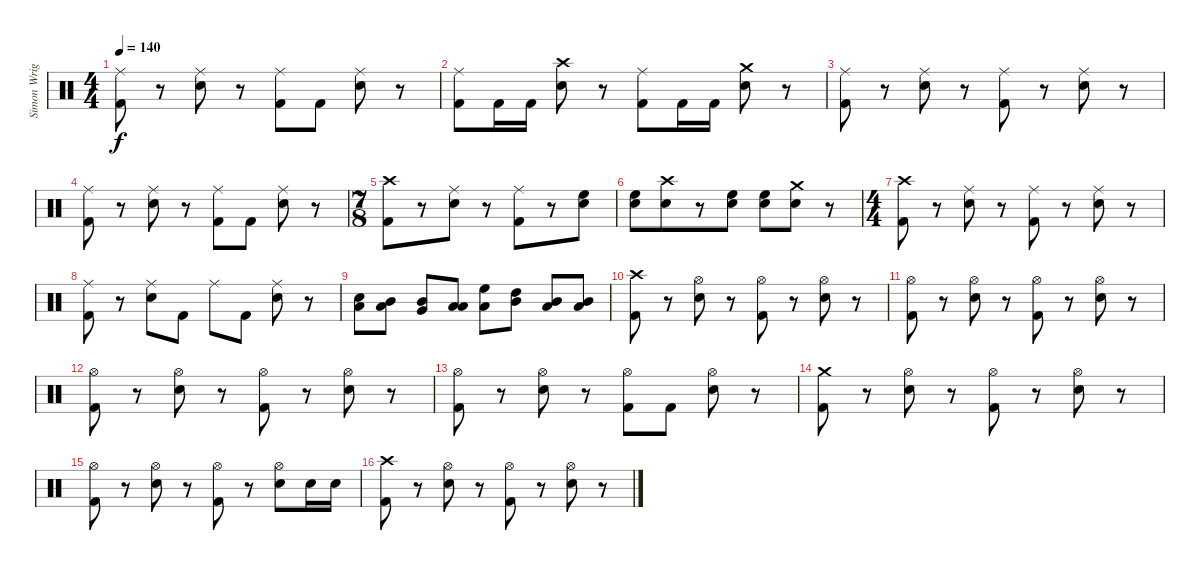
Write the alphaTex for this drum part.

\track ("Simon Wright" "Simon Wrig") {instrument percussion}
\staff {score}
\articulation defaults
\ts (4 4)
\tempo 140
\clef neutral
\ks c
("Ride (middle)" "Kick (hit) 2").8{dy f} r.8 ("Ride (middle)" "Snare (hit) 2").8 r.8 ("Ride (middle)" "Kick (hit) 2").8 "Kick (hit) 2".8 ("Ride (middle)" "Snare (hit) 2").8 r.8 |
("Ride (middle)" "Kick (hit) 2").8 "Kick (hit) 2".16 "Kick (hit) 2".16 ("Crash high (hit)" "Snare (hit) 2").8 r.8 ("Ride (middle)" "Kick (hit) 2").8 "Kick (hit) 2".16 "Kick (hit) 2".16 ("Crash medium (hit)" "Snare (hit) 2").8 r.8 |
("Ride (middle)" "Kick (hit) 2").8 r.8 ("Ride (middle)" "Snare (hit) 2").8 r.8 ("Ride (middle)" "Kick (hit) 2").8 r.8 ("Ride (middle)" "Snare (hit) 2").8 r.8 |
("Ride (middle)" "Kick (hit) 2").8 r.8 ("Ride (middle)" "Snare (hit) 2").8 r.8 ("Ride (middle)" "Kick (hit) 2").8 "Kick (hit) 2".8 ("Ride (middle)" "Snare (hit) 2").8 r.8 |
\ts (7 8)
("Crash high (hit)" "Kick (hit) 2").8 r.8 ("Ride (middle)" "Snare (hit) 2").8 r.8 ("Ride (middle)" "Kick (hit) 2").8 r.8 ("High Floor Tom (hit)" "Snare (hit) 2").8 |
("High Floor Tom (hit)" "Snare (hit) 2").8 ("Crash high (hit)" "Snare (hit) 2").8 r.8 ("High Floor Tom (hit)" "Snare (hit) 2").8 ("High Floor Tom (hit)" "Snare (hit) 2").8 ("Crash medium (hit)" "Snare (hit) 2").8 r.8 |
\ts (4 4)
("Crash high (hit)" "Kick (hit) 2").8 r.8 ("Ride (middle)" "Snare (hit) 2").8 r.8 ("Ride (middle)" "Kick (hit) 2").8 r.8 ("Ride (middle)" "Snare (hit) 2").8 r.8 |
("Ride (middle)" "Kick (hit) 2").8 r.8 ("Ride (middle)" "Snare (hit) 2").8 "Kick (hit) 2".8 "Ride (middle)".8 "Kick (hit) 2".8 ("Ride (middle)" "Snare (hit) 2").8 r.8 |
("Low Tom (hit)" "Snare (hit) 2").8 ("Mid Tom (hit)" "Low Tom (hit)").8 ("Mid Tom (hit)" "Very Low Tom (hit)").8 ("Low Tom (hit)" "Low Floor Tom (hit)").8 ("Low Tom (hit)" "High Floor Tom (hit)").8 ("Mid Tom (hit)" "High Tom (hit)").8 ("Mid Tom (hit)" "Low Tom (hit)").8 ("Mid Tom (hit)" "Low Floor Tom (hit)").8 |
("Crash high (hit)" "Kick (hit) 2").8 r.8 ("Hi-Hat (open)" "Snare (hit) 2").8 r.8 ("Hi-Hat (open)" "Kick (hit) 2").8 r.8 ("Hi-Hat (open)" "Snare (hit) 2").8 r.8 |
("Hi-Hat (open)" "Kick (hit) 2").8 r.8 ("Hi-Hat (open)" "Snare (hit) 2").8 r.8 ("Hi-Hat (open)" "Kick (hit) 2").8 r.8 ("Hi-Hat (open)" "Snare (hit) 2").8 r.8 |
("Hi-Hat (open)" "Kick (hit) 2").8 r.8 ("Hi-Hat (open)" "Snare (hit) 2").8 r.8 ("Hi-Hat (open)" "Kick (hit) 2").8 r.8 ("Hi-Hat (open)" "Snare (hit) 2").8 r.8 |
("Hi-Hat (open)" "Kick (hit) 2").8 r.8 ("Hi-Hat (open)" "Snare (hit) 2").8 r.8 ("Hi-Hat (open)" "Kick (hit) 2").8 "Kick (hit) 2".8 ("Hi-Hat (open)" "Snare (hit) 2").8 r.8 |
("Crash medium (hit)" "Kick (hit) 2").8 r.8 ("Hi-Hat (open)" "Snare (hit) 2").8 r.8 ("Hi-Hat (open)" "Kick (hit) 2").8 r.8 ("Hi-Hat (open)" "Snare (hit) 2").8 r.8 |
("Hi-Hat (open)" "Kick (hit) 2").8 r.8 ("Hi-Hat (open)" "Snare (hit) 2").8 r.8 ("Hi-Hat (open)" "Kick (hit) 2").8 r.8 ("Hi-Hat (open)" "Snare (hit) 2").8 "Snare (hit) 2".16 "Snare (hit) 2".16 |
("Crash high (hit)" "Kick (hit) 2").8 r.8 ("Hi-Hat (open)" "Snare (hit) 2").8 r.8 ("Hi-Hat (open)" "Kick (hit) 2").8 r.8 ("Hi-Hat (open)" "Snare (hit) 2").8 r.8
